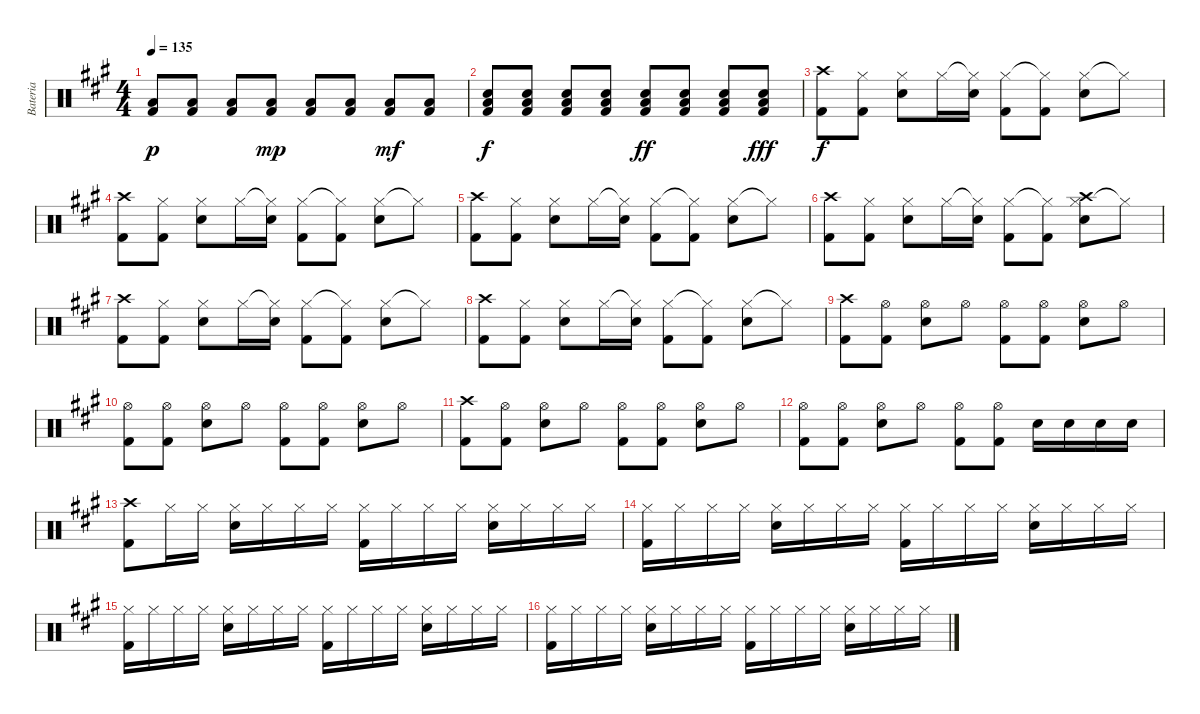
\track ("Bateria" "Bateria") {instrument percussion}
\staff {score}
\articulation defaults
\ts (4 4)
\tempo 135
\clef neutral
\ks a
("Kick (hit) 2" "Low Floor Tom (hit)").8{dy p} ("Kick (hit) 2" "Low Floor Tom (hit)").8 ("Kick (hit) 2" "Low Floor Tom (hit)").8 ("Kick (hit) 2" "Low Floor Tom (hit)").8{dy mp} ("Kick (hit) 2" "Low Floor Tom (hit)").8 ("Kick (hit) 2" "Low Floor Tom (hit)").8 ("Kick (hit) 2" "Low Floor Tom (hit)").8{dy mf} ("Kick (hit) 2" "Low Floor Tom (hit)").8 |
("Electric Snare (hit)" "Kick (hit) 2" "Low Floor Tom (hit)").8{dy f} ("Electric Snare (hit)" "Kick (hit) 2" "Low Floor Tom (hit)").8 ("Electric Snare (hit)" "Kick (hit) 2" "Low Floor Tom (hit)").8 ("Electric Snare (hit)" "Kick (hit) 2" "Low Floor Tom (hit)").8 ("Electric Snare (hit)" "Kick (hit) 2" "Low Floor Tom (hit)").8{dy ff} ("Electric Snare (hit)" "Kick (hit) 2" "Low Floor Tom (hit)").8 ("Electric Snare (hit)" "Kick (hit) 2" "Low Floor Tom (hit)").8 ("Electric Snare (hit)" "Kick (hit) 2" "Low Floor Tom (hit)").8{dy fff} |
("Kick (hit) 2" "Crash high (hit)").8{dy f} ("Kick (hit) 2" "Hi-Hat (closed)").8 ("Electric Snare (hit)" "Hi-Hat (closed)").8 "Hi-Hat (closed)".16 ("Hi-Hat (closed)"{t} "Electric Snare (hit)").16 ("Hi-Hat (closed)" "Kick (hit) 2").8 ("Hi-Hat (closed)"{t} "Kick (hit) 2").8 ("Hi-Hat (closed)" "Electric Snare (hit)").8 "Hi-Hat (closed)"{t}.8 |
("Kick (hit) 2" "Crash high (hit)").8 ("Kick (hit) 2" "Hi-Hat (closed)").8 ("Electric Snare (hit)" "Hi-Hat (closed)").8 "Hi-Hat (closed)".16 ("Hi-Hat (closed)"{t} "Electric Snare (hit)").16 ("Hi-Hat (closed)" "Kick (hit) 2").8 ("Hi-Hat (closed)"{t} "Kick (hit) 2").8 ("Hi-Hat (closed)" "Electric Snare (hit)").8 "Hi-Hat (closed)"{t}.8 |
("Kick (hit) 2" "Crash high (hit)").8 ("Kick (hit) 2" "Hi-Hat (closed)").8 ("Electric Snare (hit)" "Hi-Hat (closed)").8 "Hi-Hat (closed)".16 ("Hi-Hat (closed)"{t} "Electric Snare (hit)").16 ("Hi-Hat (closed)" "Kick (hit) 2").8 ("Hi-Hat (closed)"{t} "Kick (hit) 2").8 ("Hi-Hat (closed)" "Electric Snare (hit)").8 "Hi-Hat (closed)"{t}.8 |
("Kick (hit) 2" "Crash high (hit)").8 ("Kick (hit) 2" "Hi-Hat (closed)").8 ("Electric Snare (hit)" "Hi-Hat (closed)").8 "Hi-Hat (closed)".16 ("Hi-Hat (closed)"{t} "Electric Snare (hit)").16 ("Hi-Hat (closed)" "Kick (hit) 2").8 ("Hi-Hat (closed)"{t} "Kick (hit) 2").8 ("Hi-Hat (closed)" "Electric Snare (hit)" "Crash high (hit)").8 "Hi-Hat (closed)"{t}.8 |
("Kick (hit) 2" "Crash high (hit)").8 ("Kick (hit) 2" "Hi-Hat (closed)").8 ("Electric Snare (hit)" "Hi-Hat (closed)").8 "Hi-Hat (closed)".16 ("Hi-Hat (closed)"{t} "Electric Snare (hit)").16 ("Hi-Hat (closed)" "Kick (hit) 2").8 ("Hi-Hat (closed)"{t} "Kick (hit) 2").8 ("Hi-Hat (closed)" "Electric Snare (hit)").8 "Hi-Hat (closed)"{t}.8 |
("Kick (hit) 2" "Crash high (hit)").8 ("Kick (hit) 2" "Hi-Hat (closed)").8 ("Electric Snare (hit)" "Hi-Hat (closed)").8 "Hi-Hat (closed)".16 ("Hi-Hat (closed)"{t} "Electric Snare (hit)").16 ("Hi-Hat (closed)" "Kick (hit) 2").8 ("Hi-Hat (closed)"{t} "Kick (hit) 2").8 ("Hi-Hat (closed)" "Electric Snare (hit)").8 "Hi-Hat (closed)"{t}.8 |
("Crash high (hit)" "Kick (hit) 2").8 ("Hi-Hat (open)" "Kick (hit) 2").8 ("Hi-Hat (open)" "Electric Snare (hit)").8 "Hi-Hat (open)".8 ("Hi-Hat (open)" "Kick (hit) 2").8 ("Hi-Hat (open)" "Kick (hit) 2").8 ("Hi-Hat (open)" "Electric Snare (hit)").8 "Hi-Hat (open)".8 |
("Kick (hit) 2" "Hi-Hat (open)").8 ("Kick (hit) 2" "Hi-Hat (open)").8 ("Hi-Hat (open)" "Electric Snare (hit)").8 "Hi-Hat (open)".8 ("Hi-Hat (open)" "Kick (hit) 2").8 ("Hi-Hat (open)" "Kick (hit) 2").8 ("Hi-Hat (open)" "Electric Snare (hit)").8 "Hi-Hat (open)".8 |
("Crash high (hit)" "Kick (hit) 2").8 ("Hi-Hat (open)" "Kick (hit) 2").8 ("Hi-Hat (open)" "Electric Snare (hit)").8 "Hi-Hat (open)".8 ("Hi-Hat (open)" "Kick (hit) 2").8 ("Hi-Hat (open)" "Kick (hit) 2").8 ("Hi-Hat (open)" "Electric Snare (hit)").8 "Hi-Hat (open)".8 |
("Kick (hit) 2" "Hi-Hat (open)").8 ("Kick (hit) 2" "Hi-Hat (open)").8 ("Hi-Hat (open)" "Electric Snare (hit)").8 "Hi-Hat (open)".8 ("Hi-Hat (open)" "Kick (hit) 2").8 ("Hi-Hat (open)" "Kick (hit) 2").8 "Electric Snare (hit)".16 "Electric Snare (hit)".16 "Electric Snare (hit)".16 "Electric Snare (hit)".16 |
("Kick (hit) 2" "Crash high (hit)").8 "Hi-Hat (closed)".16 "Hi-Hat (closed)".16 ("Electric Snare (hit)" "Hi-Hat (closed)").16 "Hi-Hat (closed)".16 "Hi-Hat (closed)".16 "Hi-Hat (closed)".16 ("Kick (hit) 2" "Hi-Hat (closed)").16 "Hi-Hat (closed)".16 "Hi-Hat (closed)".16 "Hi-Hat (closed)".16 ("Hi-Hat (closed)" "Electric Snare (hit)").16 "Hi-Hat (closed)".16 "Hi-Hat (closed)".16 "Hi-Hat (closed)".16 |
("Hi-Hat (closed)" "Kick (hit) 2").16 "Hi-Hat (closed)".16 "Hi-Hat (closed)".16 "Hi-Hat (closed)".16 ("Electric Snare (hit)" "Hi-Hat (closed)").16 "Hi-Hat (closed)".16 "Hi-Hat (closed)".16 "Hi-Hat (closed)".16 ("Kick (hit) 2" "Hi-Hat (closed)").16 "Hi-Hat (closed)".16 "Hi-Hat (closed)".16 "Hi-Hat (closed)".16 ("Hi-Hat (closed)" "Electric Snare (hit)").16 "Hi-Hat (closed)".16 "Hi-Hat (closed)".16 "Hi-Hat (closed)".16 |
("Hi-Hat (closed)" "Kick (hit) 2").16 "Hi-Hat (closed)".16 "Hi-Hat (closed)".16 "Hi-Hat (closed)".16 ("Electric Snare (hit)" "Hi-Hat (closed)").16 "Hi-Hat (closed)".16 "Hi-Hat (closed)".16 "Hi-Hat (closed)".16 ("Kick (hit) 2" "Hi-Hat (closed)").16 "Hi-Hat (closed)".16 "Hi-Hat (closed)".16 "Hi-Hat (closed)".16 ("Hi-Hat (closed)" "Electric Snare (hit)").16 "Hi-Hat (closed)".16 "Hi-Hat (closed)".16 "Hi-Hat (closed)".16 |
("Hi-Hat (closed)" "Kick (hit) 2").16 "Hi-Hat (closed)".16 "Hi-Hat (closed)".16 "Hi-Hat (closed)".16 ("Electric Snare (hit)" "Hi-Hat (closed)").16 "Hi-Hat (closed)".16 "Hi-Hat (closed)".16 "Hi-Hat (closed)".16 ("Kick (hit) 2" "Hi-Hat (closed)").16 "Hi-Hat (closed)".16 "Hi-Hat (closed)".16 "Hi-Hat (closed)".16 ("Hi-Hat (closed)" "Electric Snare (hit)").16 "Hi-Hat (closed)".16 "Hi-Hat (closed)".16 "Hi-Hat (closed)".16
